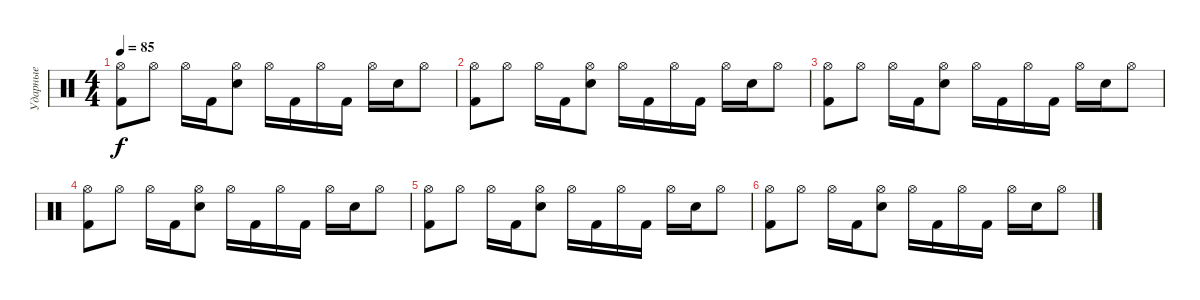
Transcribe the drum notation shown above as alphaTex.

\track ("Ударные" "Ударные") {instrument percussion}
\staff {score}
\articulation defaults
\ts (4 4)
\tempo 85
\clef neutral
\ks c
("Hi-Hat (open)" "Kick (hit) 2").8{dy f} "Hi-Hat (open)".8 "Hi-Hat (open)".16 "Kick (hit) 2".16 ("Hi-Hat (open)" "Electric Snare (hit)").8 "Hi-Hat (open)".16 "Kick (hit) 2".16 "Hi-Hat (open)".16 "Kick (hit) 2".16 "Hi-Hat (open)".16 "Electric Snare (hit)".16 "Hi-Hat (open)".8 |
("Hi-Hat (open)" "Kick (hit) 2").8 "Hi-Hat (open)".8 "Hi-Hat (open)".16 "Kick (hit) 2".16 ("Hi-Hat (open)" "Electric Snare (hit)").8 "Hi-Hat (open)".16 "Kick (hit) 2".16 "Hi-Hat (open)".16 "Kick (hit) 2".16 "Hi-Hat (open)".16 "Electric Snare (hit)".16 "Hi-Hat (open)".8 |
("Hi-Hat (open)" "Kick (hit) 2").8 "Hi-Hat (open)".8 "Hi-Hat (open)".16 "Kick (hit) 2".16 ("Hi-Hat (open)" "Electric Snare (hit)").8 "Hi-Hat (open)".16 "Kick (hit) 2".16 "Hi-Hat (open)".16 "Kick (hit) 2".16 "Hi-Hat (open)".16 "Electric Snare (hit)".16 "Hi-Hat (open)".8 |
("Hi-Hat (open)" "Kick (hit) 2").8 "Hi-Hat (open)".8 "Hi-Hat (open)".16 "Kick (hit) 2".16 ("Hi-Hat (open)" "Electric Snare (hit)").8 "Hi-Hat (open)".16 "Kick (hit) 2".16 "Hi-Hat (open)".16 "Kick (hit) 2".16 "Hi-Hat (open)".16 "Electric Snare (hit)".16 "Hi-Hat (open)".8 |
("Hi-Hat (open)" "Kick (hit) 2").8 "Hi-Hat (open)".8 "Hi-Hat (open)".16 "Kick (hit) 2".16 ("Hi-Hat (open)" "Electric Snare (hit)").8 "Hi-Hat (open)".16 "Kick (hit) 2".16 "Hi-Hat (open)".16 "Kick (hit) 2".16 "Hi-Hat (open)".16 "Electric Snare (hit)".16 "Hi-Hat (open)".8 |
("Hi-Hat (open)" "Kick (hit) 2").8 "Hi-Hat (open)".8 "Hi-Hat (open)".16 "Kick (hit) 2".16 ("Hi-Hat (open)" "Electric Snare (hit)").8 "Hi-Hat (open)".16 "Kick (hit) 2".16 "Hi-Hat (open)".16 "Kick (hit) 2".16 "Hi-Hat (open)".16 "Electric Snare (hit)".16 "Hi-Hat (open)".8
